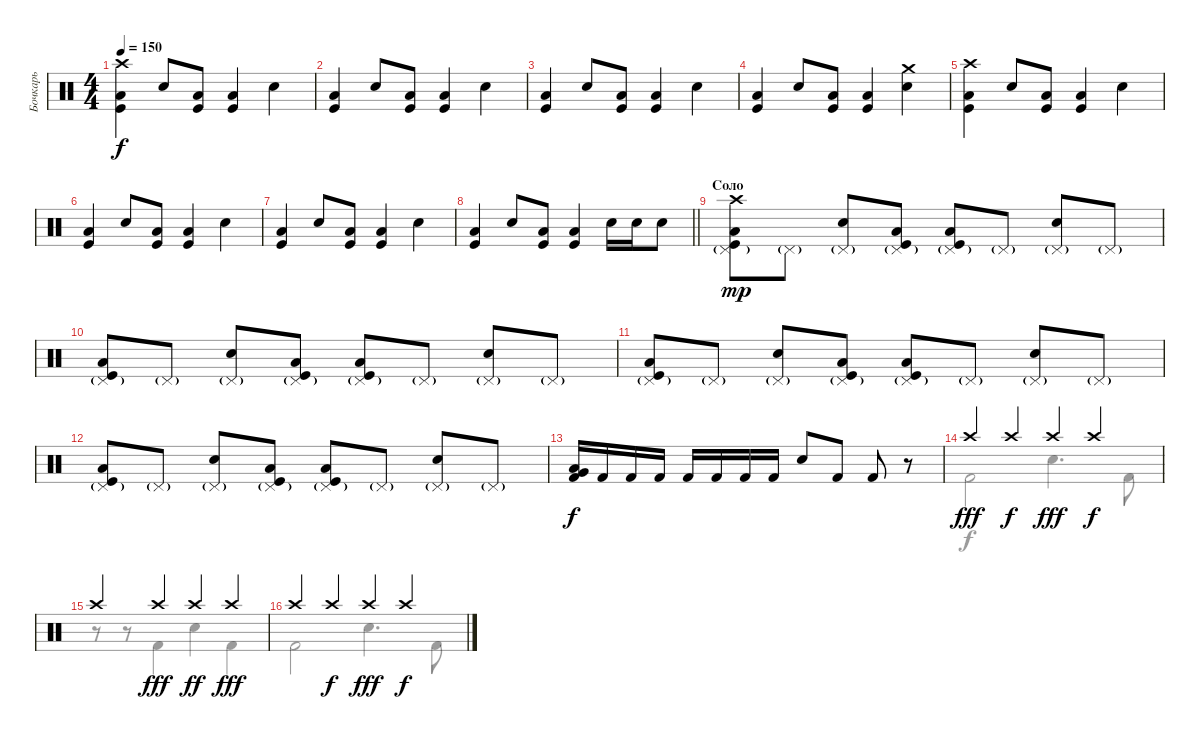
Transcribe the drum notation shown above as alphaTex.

\track ("Бочкарь" "Бочкарь") {instrument percussion}
\staff {score}
\articulation defaults
\voice
\ts (4 4)
\tempo 150
\clef neutral
\ks c
("Crash high (hit)" "Low Tom (hit)" "Kick (hit)").4{dy f} "Electric Snare (hit)".8 ("Low Tom (hit)" "Kick (hit)").8 ("Low Tom (hit)" "Kick (hit)").4 "Electric Snare (hit)".4 |
("Low Tom (hit)" "Kick (hit)").4 "Electric Snare (hit)".8 ("Low Tom (hit)" "Kick (hit)").8 ("Low Tom (hit)" "Kick (hit)").4 "Electric Snare (hit)".4 |
("Low Tom (hit)" "Kick (hit)").4 "Electric Snare (hit)".8 ("Low Tom (hit)" "Kick (hit)").8 ("Low Tom (hit)" "Kick (hit)").4 "Electric Snare (hit)".4 |
("Low Tom (hit)" "Kick (hit)").4 "Electric Snare (hit)".8 ("Low Tom (hit)" "Kick (hit)").8 ("Low Tom (hit)" "Kick (hit)").4 ("Crash medium (hit)" "Electric Snare (hit)").4 |
("Crash high (hit)" "Low Tom (hit)" "Kick (hit)").4 "Electric Snare (hit)".8 ("Low Tom (hit)" "Kick (hit)").8 ("Low Tom (hit)" "Kick (hit)").4 "Electric Snare (hit)".4 |
("Low Tom (hit)" "Kick (hit)").4 "Electric Snare (hit)".8 ("Low Tom (hit)" "Kick (hit)").8 ("Low Tom (hit)" "Kick (hit)").4 "Electric Snare (hit)".4 |
("Low Tom (hit)" "Kick (hit)").4 "Electric Snare (hit)".8 ("Low Tom (hit)" "Kick (hit)").8 ("Low Tom (hit)" "Kick (hit)").4 "Electric Snare (hit)".4 |
\barLineRight lightlight
("Low Tom (hit)" "Kick (hit)").4 "Electric Snare (hit)".8 ("Low Tom (hit)" "Kick (hit)").8 ("Low Tom (hit)" "Kick (hit)").4 "Snare (hit) 2".16 "Snare (hit) 2".16 "Electric Snare (hit)".8 |
\section ("" "Соло")
("Pedal Hi-Hat (hit)"{g} "Crash high (hit)" "Low Tom (hit)" "Kick (hit)").8{dy mp} "Pedal Hi-Hat (hit)"{g}.8 ("Pedal Hi-Hat (hit)"{g} "Electric Snare (hit)").8 ("Pedal Hi-Hat (hit)"{g} "Low Tom (hit)" "Kick (hit)").8 ("Pedal Hi-Hat (hit)"{g} "Low Tom (hit)" "Kick (hit)").8 "Pedal Hi-Hat (hit)"{g}.8 ("Pedal Hi-Hat (hit)"{g} "Electric Snare (hit)").8 "Pedal Hi-Hat (hit)"{g}.8 |
("Pedal Hi-Hat (hit)"{g} "Low Tom (hit)" "Kick (hit)").8 "Pedal Hi-Hat (hit)"{g}.8 ("Pedal Hi-Hat (hit)"{g} "Electric Snare (hit)").8 ("Pedal Hi-Hat (hit)"{g} "Low Tom (hit)" "Kick (hit)").8 ("Pedal Hi-Hat (hit)"{g} "Low Tom (hit)" "Kick (hit)").8 "Pedal Hi-Hat (hit)"{g}.8 ("Pedal Hi-Hat (hit)"{g} "Electric Snare (hit)").8 "Pedal Hi-Hat (hit)"{g}.8 |
("Pedal Hi-Hat (hit)"{g} "Low Tom (hit)" "Kick (hit)").8 "Pedal Hi-Hat (hit)"{g}.8 ("Pedal Hi-Hat (hit)"{g} "Electric Snare (hit)").8 ("Pedal Hi-Hat (hit)"{g} "Low Tom (hit)" "Kick (hit)").8 ("Pedal Hi-Hat (hit)"{g} "Low Tom (hit)" "Kick (hit)").8 "Pedal Hi-Hat (hit)"{g}.8 ("Pedal Hi-Hat (hit)"{g} "Electric Snare (hit)").8 "Pedal Hi-Hat (hit)"{g}.8 |
("Pedal Hi-Hat (hit)"{g} "Low Tom (hit)" "Kick (hit)").8 "Pedal Hi-Hat (hit)"{g}.8 ("Pedal Hi-Hat (hit)"{g} "Electric Snare (hit)").8 ("Pedal Hi-Hat (hit)"{g} "Low Tom (hit)" "Kick (hit)").8 ("Pedal Hi-Hat (hit)"{g} "Low Tom (hit)" "Kick (hit)").8 "Pedal Hi-Hat (hit)"{g}.8 ("Pedal Hi-Hat (hit)"{g} "Electric Snare (hit)").8 "Pedal Hi-Hat (hit)"{g}.8 |
("Very Low Tom (hit)" "Low Floor Tom (hit)" "Kick (hit) 2").16{dy f} "Kick (hit) 2".16 "Kick (hit) 2".16 "Kick (hit) 2".16 "Kick (hit) 2".16 "Kick (hit) 2".16 "Kick (hit) 2".16 "Kick (hit) 2".16 "Electric Snare (hit)".8 "Kick (hit) 2".8 "Kick (hit) 2".8 r.8 |
"Crash high (hit)".4{dy fff} "Crash high (hit)".4{dy f} "Crash high (hit)".4{dy fff} "Crash high (hit)".4{dy f} |
"Crash high (hit)".4 "Crash high (hit)".4{dy fff} "Crash high (hit)".4{dy ff} "Crash high (hit)".4{dy fff} |
"Crash high (hit)".4 "Crash high (hit)".4{dy f} "Crash high (hit)".4{dy fff} "Crash high (hit)".4{dy f}
\voice
\clef neutral
\ottava regular
\simile none
\ks c
|
|
|
|
|
|
|
\barLineRight lightlight
|
|
|
|
|
|
"Kick (hit) 2".2 "Snare (hit) 2".4{d} "Kick (hit) 2".8 |
r.8 r.8 "Kick (hit) 2".4 "Snare (hit) 2".4 "Kick (hit) 2".4 |
"Kick (hit) 2".2 "Snare (hit) 2".4{d} "Kick (hit) 2".8
